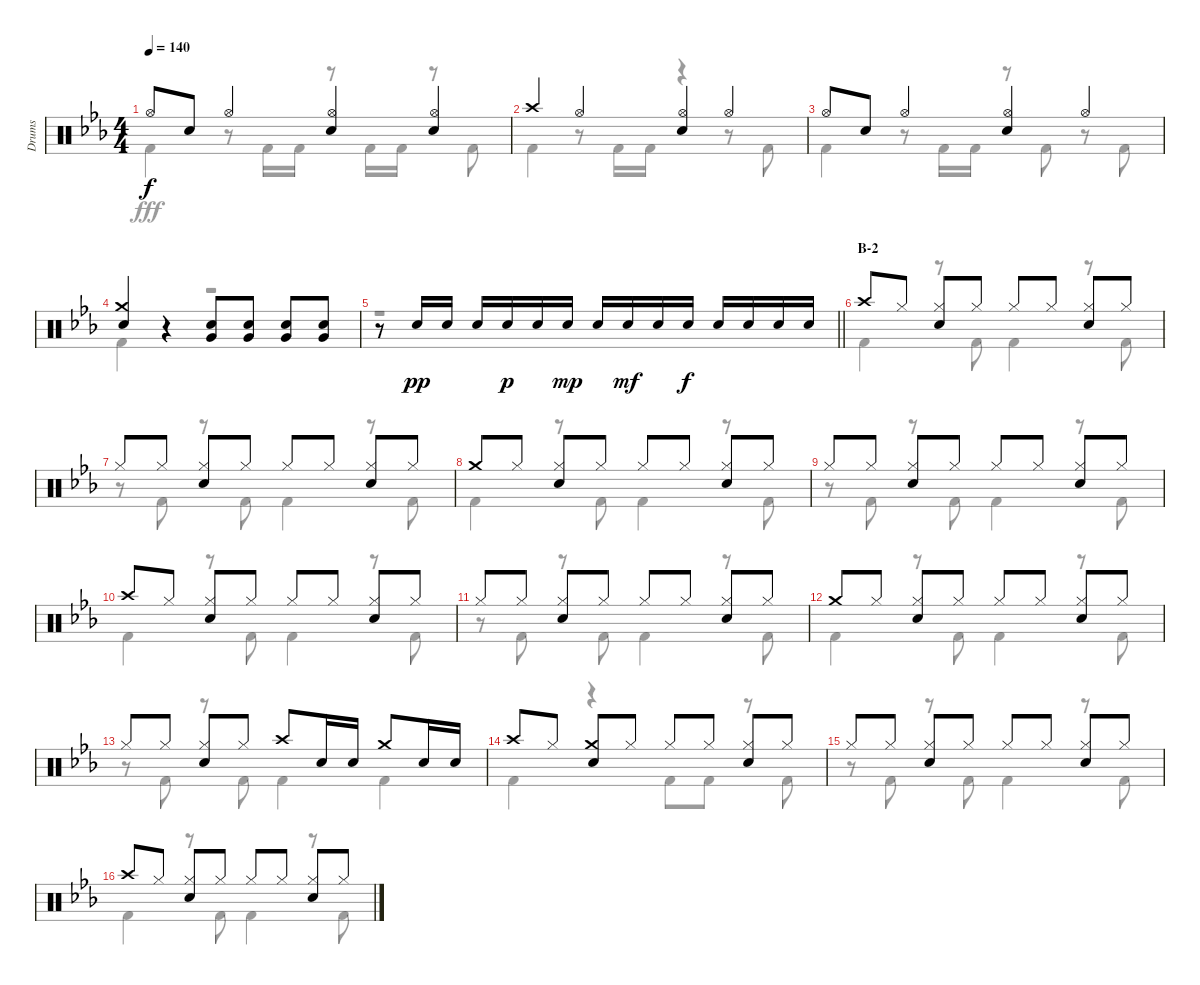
\track ("Drums" "Drums") {instrument percussion}
\staff {score}
\articulation defaults
\voice
\ts (4 4)
\tempo 140
\clef neutral
\ks eb "Hi-Hat (open)".8{dy f} "Snare (hit) 2".8 "Hi-Hat (open)".4
("Hi-Hat (open)" "Snare (hit) 2").4 ("Hi-Hat (open)" "Snare (hit) 2").4 |
"Crash high (hit)".4 "Hi-Hat (open)".4 ("Hi-Hat (open)" "Snare (hit) 2").4 "Hi-Hat (open)".4 |
"Hi-Hat (open)".8 "Snare (hit) 2".8 "Hi-Hat (open)".4 ("Hi-Hat (open)" "Snare (hit) 2").4 "Hi-Hat (open)".4 |
("Crash medium (hit)" "Snare (hit) 2").4 r.4 ("Snare (hit) 2" "Very Low Tom (hit)").8 ("Snare (hit) 2" "Very Low Tom (hit)").8 ("Snare (hit) 2" "Very Low Tom (hit)").8 ("Snare (hit) 2" "Very Low Tom (hit)").8 |
\barLineRight lightlight
r.8 "Snare (hit) 2".16{dy pp} "Snare (hit) 2".16 "Snare (hit) 2".16 "Snare (hit) 2".16{dy p} "Snare (hit) 2".16 "Snare (hit) 2".16{dy mp} "Snare (hit) 2".16 "Snare (hit) 2".16{dy mf} "Snare (hit) 2".16 "Snare (hit) 2".16{dy f} "Snare (hit) 2".16 "Snare (hit) 2".16 "Snare (hit) 2".16 "Snare (hit) 2".16 |
\section ("" "B-2")
"Crash high (hit)".8 "Hi-Hat (closed)".8 ("Hi-Hat (closed)" "Snare (hit) 2").8 "Hi-Hat (closed)".8 "Hi-Hat (closed)".8 "Hi-Hat (closed)".8 ("Hi-Hat (closed)" "Snare (hit) 2").8 "Hi-Hat (closed)".8 |
"Hi-Hat (closed)".8 "Hi-Hat (closed)".8 ("Hi-Hat (closed)" "Snare (hit) 2").8 "Hi-Hat (closed)".8 "Hi-Hat (closed)".8 "Hi-Hat (closed)".8 ("Hi-Hat (closed)" "Snare (hit) 2").8 "Hi-Hat (closed)".8 |
"Crash medium (hit)".8 "Hi-Hat (closed)".8 ("Hi-Hat (closed)" "Snare (hit) 2").8 "Hi-Hat (closed)".8 "Hi-Hat (closed)".8 "Hi-Hat (closed)".8 ("Hi-Hat (closed)" "Snare (hit) 2").8 "Hi-Hat (closed)".8 |
"Hi-Hat (closed)".8 "Hi-Hat (closed)".8 ("Hi-Hat (closed)" "Snare (hit) 2").8 "Hi-Hat (closed)".8 "Hi-Hat (closed)".8 "Hi-Hat (closed)".8 ("Hi-Hat (closed)" "Snare (hit) 2").8 "Hi-Hat (closed)".8 |
"Crash high (hit)".8 "Hi-Hat (closed)".8 ("Hi-Hat (closed)" "Snare (hit) 2").8 "Hi-Hat (closed)".8 "Hi-Hat (closed)".8 "Hi-Hat (closed)".8 ("Hi-Hat (closed)" "Snare (hit) 2").8 "Hi-Hat (closed)".8 |
"Hi-Hat (closed)".8 "Hi-Hat (closed)".8 ("Hi-Hat (closed)" "Snare (hit) 2").8 "Hi-Hat (closed)".8 "Hi-Hat (closed)".8 "Hi-Hat (closed)".8 ("Hi-Hat (closed)" "Snare (hit) 2").8 "Hi-Hat (closed)".8 |
"Crash medium (hit)".8 "Hi-Hat (closed)".8 ("Hi-Hat (closed)" "Snare (hit) 2").8 "Hi-Hat (closed)".8 "Hi-Hat (closed)".8 "Hi-Hat (closed)".8 ("Hi-Hat (closed)" "Snare (hit) 2").8 "Hi-Hat (closed)".8 |
"Hi-Hat (closed)".8 "Hi-Hat (closed)".8 ("Hi-Hat (closed)" "Snare (hit) 2").8 "Hi-Hat (closed)".8 "Crash high (hit)".8 "Snare (hit) 2".16 "Snare (hit) 2".16 "Crash medium (hit)".8 "Snare (hit) 2".16 "Snare (hit) 2".16 |
"Crash high (hit)".8 "Hi-Hat (closed)".8 ("Crash medium (hit)" "Snare (hit) 2").8 "Hi-Hat (closed)".8 "Hi-Hat (closed)".8 "Hi-Hat (closed)".8 ("Hi-Hat (closed)" "Snare (hit) 2").8 "Hi-Hat (closed)".8 |
"Hi-Hat (closed)".8 "Hi-Hat (closed)".8 ("Hi-Hat (closed)" "Snare (hit) 2").8 "Hi-Hat (closed)".8 "Hi-Hat (closed)".8 "Hi-Hat (closed)".8 ("Hi-Hat (closed)" "Snare (hit) 2").8 "Hi-Hat (closed)".8 |
"Crash high (hit)".8 "Hi-Hat (closed)".8 ("Hi-Hat (closed)" "Snare (hit) 2").8 "Hi-Hat (closed)".8 "Hi-Hat (closed)".8 "Hi-Hat (closed)".8 ("Hi-Hat (closed)" "Snare (hit) 2").8 "Hi-Hat (closed)".8
\voice
\clef neutral
\ottava regular
\simile none
\ks eb "Kick (hit) 2".4{dy fff}
r.8 "Kick (hit) 2".16 "Kick (hit) 2".16 r.8 "Kick (hit) 2".16 "Kick (hit) 2".16 r.8 "Kick (hit) 2".8 |
"Kick (hit) 2".4 r.8 "Kick (hit) 2".16 "Kick (hit) 2".16 r.4 r.8 "Kick (hit) 2".8 |
"Kick (hit) 2".4 r.8 "Kick (hit) 2".16 "Kick (hit) 2".16 r.8 "Kick (hit) 2".8 r.8 "Kick (hit) 2".8 |
"Kick (hit) 2".4 r.4 r.2 |
\barLineRight lightlight
r.1 |
"Kick (hit) 2".4 r.8 "Kick (hit) 2".8 "Kick (hit) 2".4 r.8 "Kick (hit) 2".8 |
r.8 "Kick (hit) 2".8 r.8 "Kick (hit) 2".8 "Kick (hit) 2".4 r.8 "Kick (hit) 2".8 |
"Kick (hit) 2".4 r.8 "Kick (hit) 2".8 "Kick (hit) 2".4 r.8 "Kick (hit) 2".8 |
r.8 "Kick (hit) 2".8 r.8 "Kick (hit) 2".8 "Kick (hit) 2".4 r.8 "Kick (hit) 2".8 |
"Kick (hit) 2".4 r.8 "Kick (hit) 2".8 "Kick (hit) 2".4 r.8 "Kick (hit) 2".8 |
r.8 "Kick (hit) 2".8 r.8 "Kick (hit) 2".8 "Kick (hit) 2".4 r.8 "Kick (hit) 2".8 |
"Kick (hit) 2".4 r.8 "Kick (hit) 2".8 "Kick (hit) 2".4 r.8 "Kick (hit) 2".8 |
r.8 "Kick (hit) 2".8 r.8 "Kick (hit) 2".8 "Kick (hit) 2".4 "Kick (hit) 2".4 |
"Kick (hit) 2".4 r.4 "Kick (hit) 2".8 "Kick (hit) 2".8 r.8 "Kick (hit) 2".8 |
r.8 "Kick (hit) 2".8 r.8 "Kick (hit) 2".8 "Kick (hit) 2".4 r.8 "Kick (hit) 2".8 |
"Kick (hit) 2".4 r.8 "Kick (hit) 2".8 "Kick (hit) 2".4 r.8 "Kick (hit) 2".8
